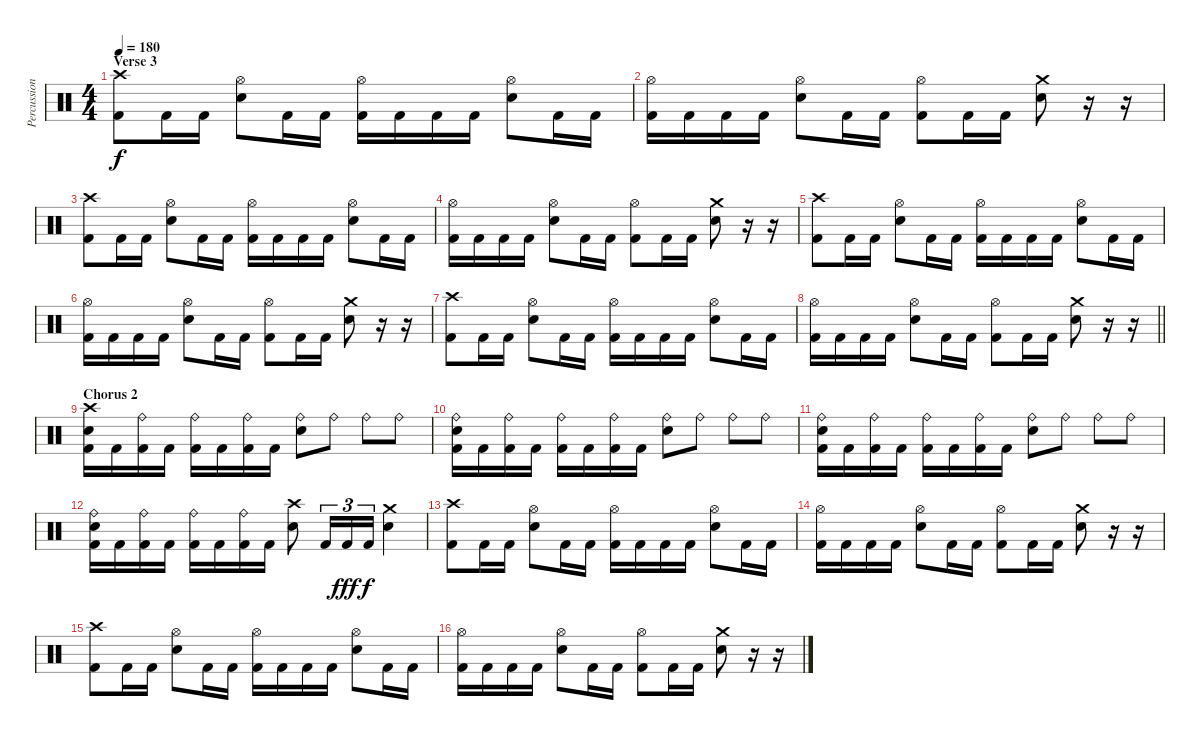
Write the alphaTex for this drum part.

\track ("Percussion" "Percussion") {instrument percussion}
\staff {score}
\articulation defaults
\ts (4 4)
\section ("" "Verse 3")
\tempo 180
\clef neutral
\ks c
("Crash high (hit)" "Kick (hit) 2").8{dy f} "Kick (hit) 2".16 "Kick (hit) 2".16 ("Hi-Hat (open)" "Electric Snare (hit)").8 "Kick (hit) 2".16 "Kick (hit) 2".16 ("Hi-Hat (open)" "Kick (hit) 2").16 "Kick (hit) 2".16 "Kick (hit) 2".16 "Kick (hit) 2".16 ("Hi-Hat (open)" "Electric Snare (hit)").8 "Kick (hit) 2".16 "Kick (hit) 2".16 |
("Hi-Hat (open)" "Kick (hit) 2").16 "Kick (hit) 2".16 "Kick (hit) 2".16 "Kick (hit) 2".16 ("Hi-Hat (open)" "Electric Snare (hit)").8 "Kick (hit) 2".16 "Kick (hit) 2".16 ("Hi-Hat (open)" "Kick (hit) 2").8 "Kick (hit) 2".16 "Kick (hit) 2".16 ("Crash medium (hit)" "Electric Snare (hit)").8 r.16 r.16 |
("Crash high (hit)" "Kick (hit) 2").8 "Kick (hit) 2".16 "Kick (hit) 2".16 ("Hi-Hat (open)" "Electric Snare (hit)").8 "Kick (hit) 2".16 "Kick (hit) 2".16 ("Hi-Hat (open)" "Kick (hit) 2").16 "Kick (hit) 2".16 "Kick (hit) 2".16 "Kick (hit) 2".16 ("Hi-Hat (open)" "Electric Snare (hit)").8 "Kick (hit) 2".16 "Kick (hit) 2".16 |
("Hi-Hat (open)" "Kick (hit) 2").16 "Kick (hit) 2".16 "Kick (hit) 2".16 "Kick (hit) 2".16 ("Hi-Hat (open)" "Electric Snare (hit)").8 "Kick (hit) 2".16 "Kick (hit) 2".16 ("Hi-Hat (open)" "Kick (hit) 2").8 "Kick (hit) 2".16 "Kick (hit) 2".16 ("Crash medium (hit)" "Electric Snare (hit)").8 r.16 r.16 |
("Crash high (hit)" "Kick (hit) 2").8 "Kick (hit) 2".16 "Kick (hit) 2".16 ("Hi-Hat (open)" "Electric Snare (hit)").8 "Kick (hit) 2".16 "Kick (hit) 2".16 ("Hi-Hat (open)" "Kick (hit) 2").16 "Kick (hit) 2".16 "Kick (hit) 2".16 "Kick (hit) 2".16 ("Hi-Hat (open)" "Electric Snare (hit)").8 "Kick (hit) 2".16 "Kick (hit) 2".16 |
("Hi-Hat (open)" "Kick (hit) 2").16 "Kick (hit) 2".16 "Kick (hit) 2".16 "Kick (hit) 2".16 ("Hi-Hat (open)" "Electric Snare (hit)").8 "Kick (hit) 2".16 "Kick (hit) 2".16 ("Hi-Hat (open)" "Kick (hit) 2").8 "Kick (hit) 2".16 "Kick (hit) 2".16 ("Crash medium (hit)" "Electric Snare (hit)").8 r.16 r.16 |
("Crash high (hit)" "Kick (hit) 2").8 "Kick (hit) 2".16 "Kick (hit) 2".16 ("Hi-Hat (open)" "Electric Snare (hit)").8 "Kick (hit) 2".16 "Kick (hit) 2".16 ("Hi-Hat (open)" "Kick (hit) 2").16 "Kick (hit) 2".16 "Kick (hit) 2".16 "Kick (hit) 2".16 ("Hi-Hat (open)" "Electric Snare (hit)").8 "Kick (hit) 2".16 "Kick (hit) 2".16 |
\barLineRight lightlight
("Hi-Hat (open)" "Kick (hit) 2").16 "Kick (hit) 2".16 "Kick (hit) 2".16 "Kick (hit) 2".16 ("Hi-Hat (open)" "Electric Snare (hit)").8 "Kick (hit) 2".16 "Kick (hit) 2".16 ("Hi-Hat (open)" "Kick (hit) 2").8 "Kick (hit) 2".16 "Kick (hit) 2".16 ("Crash medium (hit)" "Electric Snare (hit)").8 r.16 r.16 |
\section ("" "Chorus 2")
("Crash high (hit)" "Electric Snare (hit)" "Kick (hit) 2").16 "Kick (hit) 2".16 ("Ride (bell)" "Kick (hit) 2").16 "Kick (hit) 2".16 ("Ride (bell)" "Kick (hit) 2").16 "Kick (hit) 2".16 ("Ride (bell)" "Kick (hit) 2").16 "Kick (hit) 2".16 ("Ride (bell)" "Electric Snare (hit)").8 "Ride (bell)".8 "Ride (bell)".8 "Ride (bell)".8 |
("Ride (bell)" "Electric Snare (hit)" "Kick (hit) 2").16 "Kick (hit) 2".16 ("Ride (bell)" "Kick (hit) 2").16 "Kick (hit) 2".16 ("Ride (bell)" "Kick (hit) 2").16 "Kick (hit) 2".16 ("Ride (bell)" "Kick (hit) 2").16 "Kick (hit) 2".16 ("Ride (bell)" "Electric Snare (hit)").8 "Ride (bell)".8 "Ride (bell)".8 "Ride (bell)".8 |
("Ride (bell)" "Electric Snare (hit)" "Kick (hit) 2").16 "Kick (hit) 2".16 ("Ride (bell)" "Kick (hit) 2").16 "Kick (hit) 2".16 ("Ride (bell)" "Kick (hit) 2").16 "Kick (hit) 2".16 ("Ride (bell)" "Kick (hit) 2").16 "Kick (hit) 2".16 ("Ride (bell)" "Electric Snare (hit)").8 "Ride (bell)".8 "Ride (bell)".8 "Ride (bell)".8 |
("Ride (bell)" "Electric Snare (hit)" "Kick (hit) 2").16 "Kick (hit) 2".16 ("Ride (bell)" "Kick (hit) 2").16 "Kick (hit) 2".16 ("Ride (bell)" "Kick (hit) 2").16 "Kick (hit) 2".16 ("Ride (bell)" "Kick (hit) 2").16 "Kick (hit) 2".16 ("Crash high (hit)" "Electric Snare (hit)").8 "Kick (hit) 2".16{tu (3 2)} "Kick (hit) 2".16{tu (3 2) dy fff} "Kick (hit) 2".16{tu (3 2) dy f} ("Crash medium (hit)" "Electric Snare (hit)").4 |
("Crash high (hit)" "Kick (hit) 2").8 "Kick (hit) 2".16 "Kick (hit) 2".16 ("Hi-Hat (open)" "Electric Snare (hit)").8 "Kick (hit) 2".16 "Kick (hit) 2".16 ("Hi-Hat (open)" "Kick (hit) 2").16 "Kick (hit) 2".16 "Kick (hit) 2".16 "Kick (hit) 2".16 ("Hi-Hat (open)" "Electric Snare (hit)").8 "Kick (hit) 2".16 "Kick (hit) 2".16 |
("Hi-Hat (open)" "Kick (hit) 2").16 "Kick (hit) 2".16 "Kick (hit) 2".16 "Kick (hit) 2".16 ("Hi-Hat (open)" "Electric Snare (hit)").8 "Kick (hit) 2".16 "Kick (hit) 2".16 ("Hi-Hat (open)" "Kick (hit) 2").8 "Kick (hit) 2".16 "Kick (hit) 2".16 ("Crash medium (hit)" "Electric Snare (hit)").8 r.16 r.16 |
("Crash high (hit)" "Kick (hit) 2").8 "Kick (hit) 2".16 "Kick (hit) 2".16 ("Hi-Hat (open)" "Electric Snare (hit)").8 "Kick (hit) 2".16 "Kick (hit) 2".16 ("Hi-Hat (open)" "Kick (hit) 2").16 "Kick (hit) 2".16 "Kick (hit) 2".16 "Kick (hit) 2".16 ("Hi-Hat (open)" "Electric Snare (hit)").8 "Kick (hit) 2".16 "Kick (hit) 2".16 |
("Hi-Hat (open)" "Kick (hit) 2").16 "Kick (hit) 2".16 "Kick (hit) 2".16 "Kick (hit) 2".16 ("Hi-Hat (open)" "Electric Snare (hit)").8 "Kick (hit) 2".16 "Kick (hit) 2".16 ("Hi-Hat (open)" "Kick (hit) 2").8 "Kick (hit) 2".16 "Kick (hit) 2".16 ("Crash medium (hit)" "Electric Snare (hit)").8 r.16 r.16
